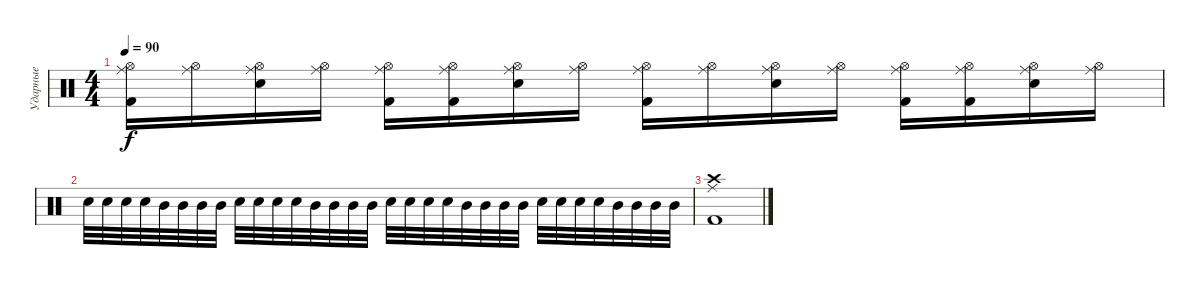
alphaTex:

\track ("Ударные" "Ударные") {instrument percussion}
\staff {score}
\articulation defaults
\ts (4 4)
\tempo 90
\clef neutral
\ks c
("Kick (hit) 2" "Ride (middle)" "Hi-Hat (open)").16{dy f} ("Ride (middle)" "Hi-Hat (open)").16 ("Electric Snare (hit)" "Ride (middle)" "Hi-Hat (open)").16 ("Ride (middle)" "Hi-Hat (open)").16 ("Kick (hit) 2" "Ride (middle)" "Hi-Hat (open)").16 ("Kick (hit) 2" "Ride (middle)" "Hi-Hat (open)").16 ("Electric Snare (hit)" "Ride (middle)" "Hi-Hat (open)").16 ("Ride (middle)" "Hi-Hat (open)").16 ("Kick (hit) 2" "Ride (middle)" "Hi-Hat (open)").16 ("Ride (middle)" "Hi-Hat (open)").16 ("Electric Snare (hit)" "Ride (middle)" "Hi-Hat (open)").16 ("Ride (middle)" "Hi-Hat (open)").16 ("Kick (hit) 2" "Ride (middle)" "Hi-Hat (open)").16 ("Kick (hit) 2" "Ride (middle)" "Hi-Hat (open)").16 ("Electric Snare (hit)" "Ride (middle)" "Hi-Hat (open)").16 ("Ride (middle)" "Hi-Hat (open)").16 |
"Electric Snare (hit)".32 "Electric Snare (hit)".32 "Electric Snare (hit)".32 "Electric Snare (hit)".32 "Mid Tom (hit)".32 "Mid Tom (hit)".32 "Mid Tom (hit)".32 "Mid Tom (hit)".32 "Electric Snare (hit)".32 "Electric Snare (hit)".32 "Electric Snare (hit)".32 "Electric Snare (hit)".32 "Mid Tom (hit)".32 "Mid Tom (hit)".32 "Mid Tom (hit)".32 "Mid Tom (hit)".32 "Electric Snare (hit)".32 "Electric Snare (hit)".32 "Electric Snare (hit)".32 "Electric Snare (hit)".32 "Mid Tom (hit)".32 "Mid Tom (hit)".32 "Mid Tom (hit)".32 "Mid Tom (hit)".32 "Electric Snare (hit)".32 "Electric Snare (hit)".32 "Electric Snare (hit)".32 "Electric Snare (hit)".32 "Mid Tom (hit)".32 "Mid Tom (hit)".32 "Mid Tom (hit)".32 "Mid Tom (hit)".32 |
("Crash high (hit)" "Kick (hit) 2" "Ride (middle)").1
